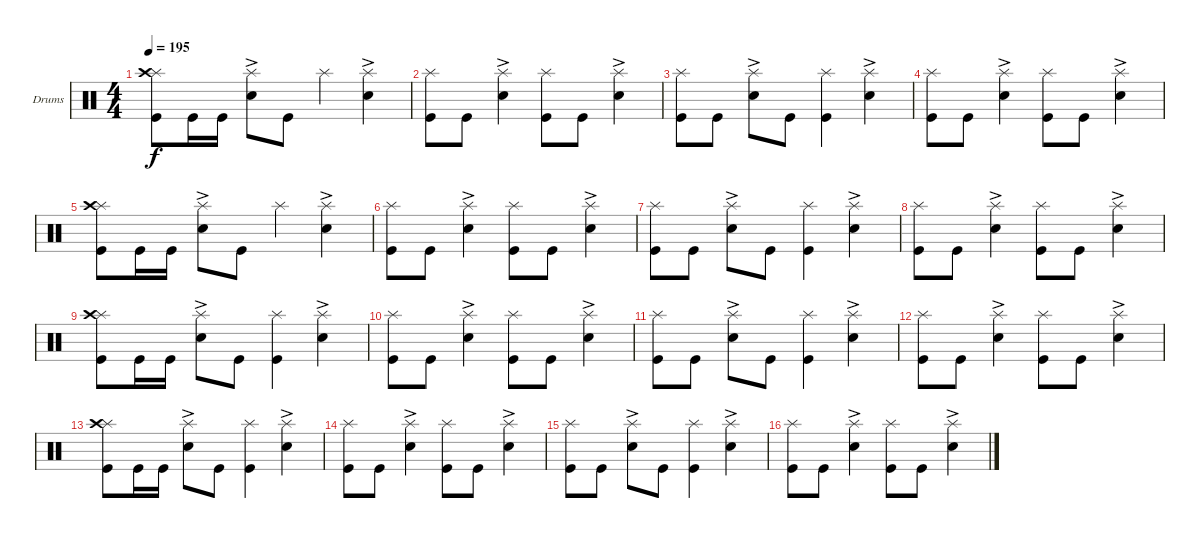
\defaultSystemsLayout 4
\bracketExtendMode groupsimilarinstruments
\firstSystemTrackNameOrientation horizontal
\otherSystemsTrackNameOrientation horizontal
\track ("Drumkit" "Drums") {instrument percussion}
\staff {score}
\articulation defaults
\ts (4 4)
\tempo 195
\clef neutral
\ks c
("Kick (hit)" "Splash (hit)" "Crash high (hit)").8{dy f} "Kick (hit)".16 "Kick (hit)".16 ("Snare (hit) 2"{ac} "Splash (hit)").8 "Kick (hit)".8 "Splash (hit)".4 ("Snare (hit) 2"{ac} "Splash (hit)").4 |
("Kick (hit)" "Splash (hit)").8 "Kick (hit)".8 ("Snare (hit) 2"{ac} "Splash (hit)").4 ("Kick (hit)" "Splash (hit)").8 "Kick (hit)".8 ("Snare (hit) 2"{ac} "Splash (hit)").4 |
("Kick (hit)" "Splash (hit)").8 "Kick (hit)".8 ("Snare (hit) 2"{ac} "Splash (hit)").8 "Kick (hit)".8 ("Kick (hit)" "Splash (hit)").4 ("Snare (hit) 2"{ac} "Splash (hit)").4 |
("Kick (hit)" "Splash (hit)").8 "Kick (hit)".8 ("Snare (hit) 2"{ac} "Splash (hit)").4 ("Kick (hit)" "Splash (hit)").8 "Kick (hit)".8 ("Snare (hit) 2"{ac} "Splash (hit)").4 |
("Kick (hit)" "Splash (hit)" "Crash high (hit)").8 "Kick (hit)".16 "Kick (hit)".16 ("Snare (hit) 2"{ac} "Splash (hit)").8 "Kick (hit)".8 "Splash (hit)".4 ("Snare (hit) 2"{ac} "Splash (hit)").4 |
("Kick (hit)" "Splash (hit)").8 "Kick (hit)".8 ("Snare (hit) 2"{ac} "Splash (hit)").4 ("Kick (hit)" "Splash (hit)").8 "Kick (hit)".8 ("Snare (hit) 2"{ac} "Splash (hit)").4 |
("Kick (hit)" "Splash (hit)").8 "Kick (hit)".8 ("Snare (hit) 2"{ac} "Splash (hit)").8 "Kick (hit)".8 ("Kick (hit)" "Splash (hit)").4 ("Snare (hit) 2"{ac} "Splash (hit)").4 |
("Kick (hit)" "Splash (hit)").8 "Kick (hit)".8 ("Snare (hit) 2"{ac} "Splash (hit)").4 ("Kick (hit)" "Splash (hit)").8 "Kick (hit)".8 ("Snare (hit) 2"{ac} "Splash (hit)").4 |
("Kick (hit)" "Splash (hit)" "Crash high (hit)").8 "Kick (hit)".16 "Kick (hit)".16 ("Snare (hit) 2"{ac} "Splash (hit)").8 "Kick (hit)".8 ("Splash (hit)" "Kick (hit)").4 ("Snare (hit) 2"{ac} "Splash (hit)").4 |
("Kick (hit)" "Splash (hit)").8 "Kick (hit)".8 ("Snare (hit) 2"{ac} "Splash (hit)").4 ("Kick (hit)" "Splash (hit)").8 "Kick (hit)".8 ("Snare (hit) 2"{ac} "Splash (hit)").4 |
("Kick (hit)" "Splash (hit)").8 "Kick (hit)".8 ("Snare (hit) 2"{ac} "Splash (hit)").8 "Kick (hit)".8 ("Kick (hit)" "Splash (hit)").4 ("Snare (hit) 2"{ac} "Splash (hit)").4 |
("Kick (hit)" "Splash (hit)").8 "Kick (hit)".8 ("Snare (hit) 2"{ac} "Splash (hit)").4 ("Kick (hit)" "Splash (hit)").8 "Kick (hit)".8 ("Snare (hit) 2"{ac} "Splash (hit)").4 |
("Kick (hit)" "Splash (hit)" "Crash high (hit)").8 "Kick (hit)".16 "Kick (hit)".16 ("Snare (hit) 2"{ac} "Splash (hit)").8 "Kick (hit)".8 ("Splash (hit)" "Kick (hit)").4 ("Snare (hit) 2"{ac} "Splash (hit)").4 |
("Kick (hit)" "Splash (hit)").8 "Kick (hit)".8 ("Snare (hit) 2"{ac} "Splash (hit)").4 ("Kick (hit)" "Splash (hit)").8 "Kick (hit)".8 ("Snare (hit) 2"{ac} "Splash (hit)").4 |
("Kick (hit)" "Splash (hit)").8 "Kick (hit)".8 ("Snare (hit) 2"{ac} "Splash (hit)").8 "Kick (hit)".8 ("Kick (hit)" "Splash (hit)").4 ("Snare (hit) 2"{ac} "Splash (hit)").4 |
("Kick (hit)" "Splash (hit)").8 "Kick (hit)".8 ("Snare (hit) 2"{ac} "Splash (hit)").4 ("Kick (hit)" "Splash (hit)").8 "Kick (hit)".8 ("Snare (hit) 2"{ac} "Splash (hit)").4
